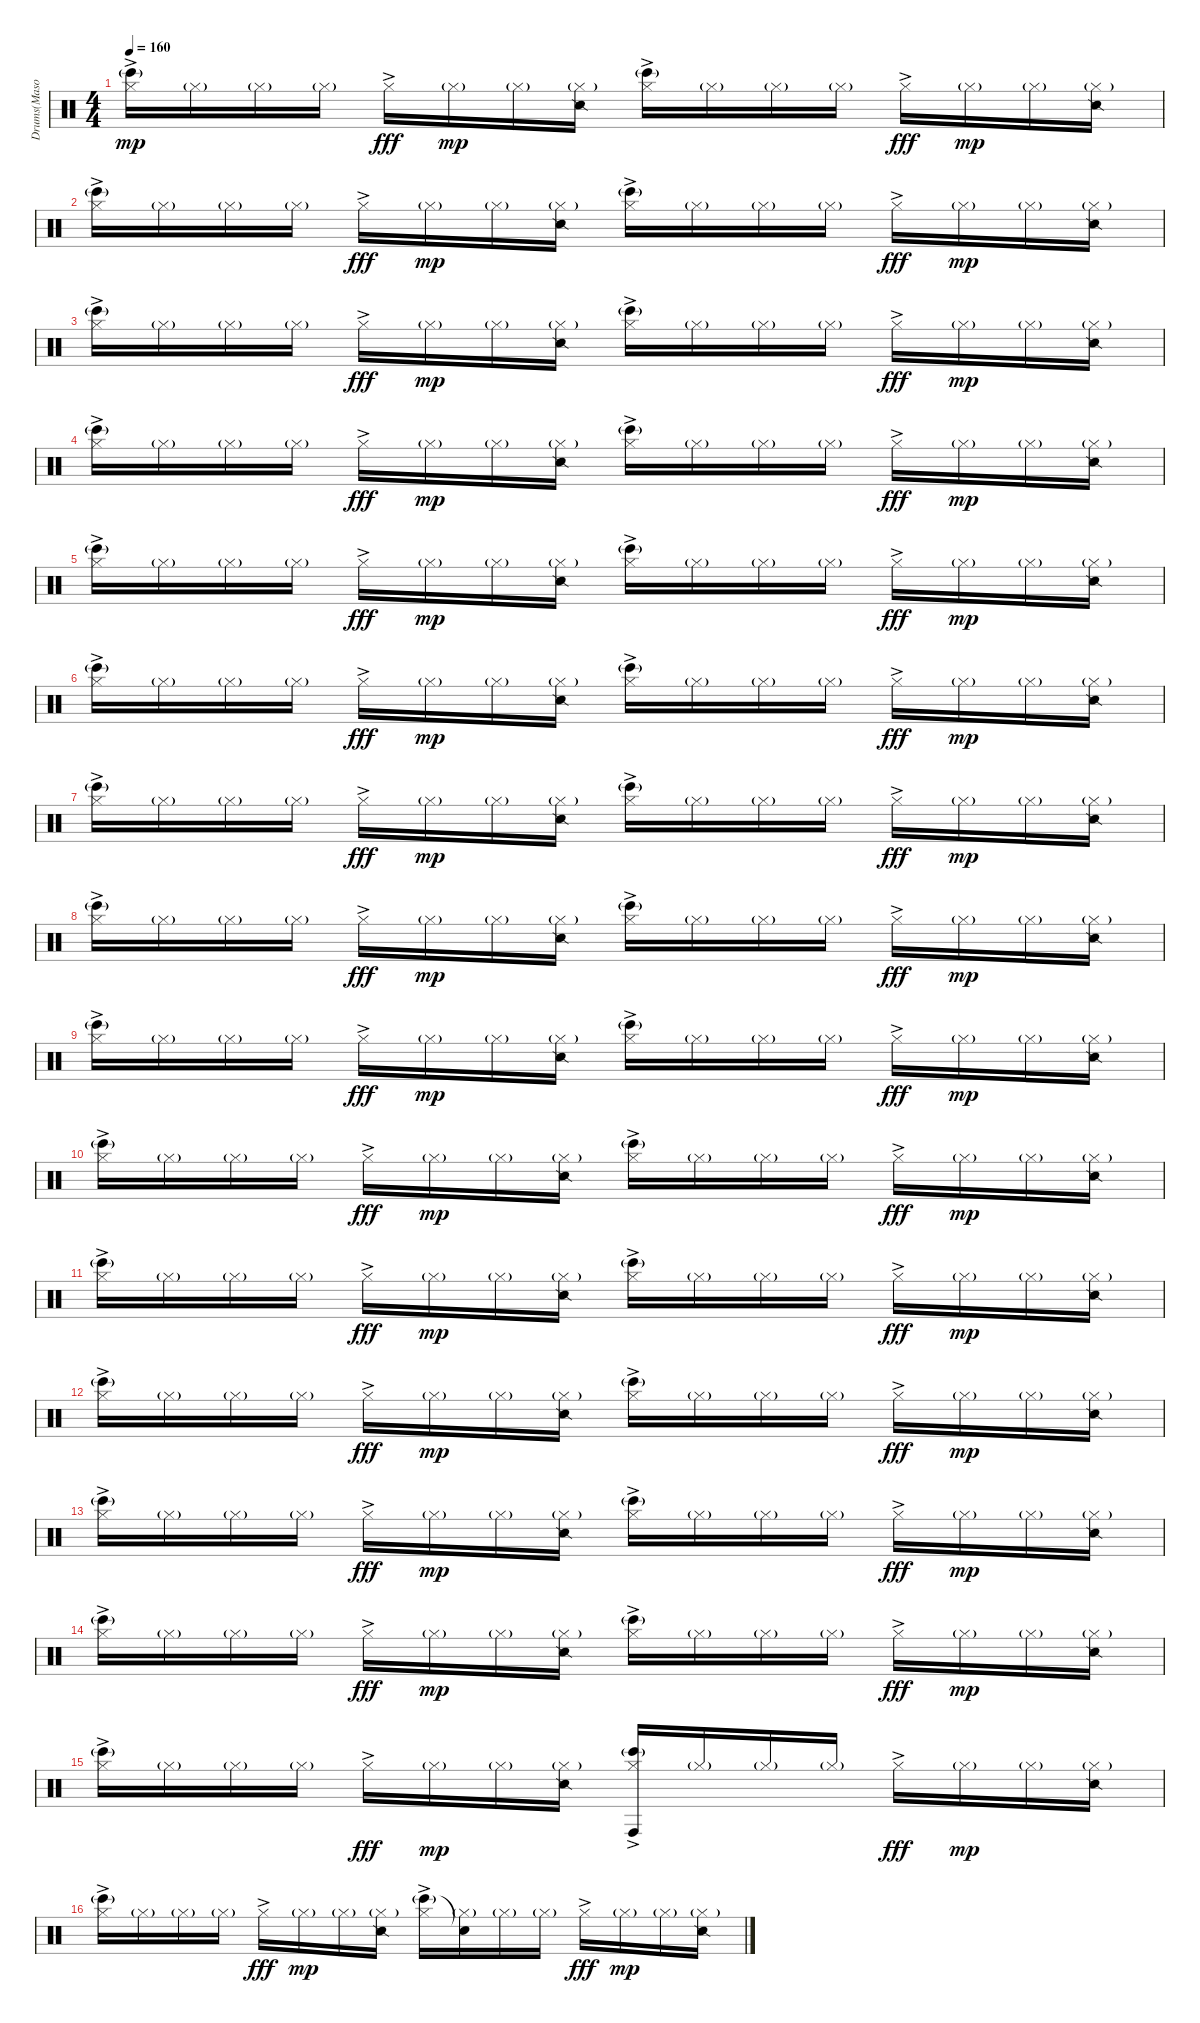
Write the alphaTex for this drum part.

\track ("Drums(Mason)" "Drums(Maso") {instrument percussion}
\staff {score}
\articulation defaults
\ts (4 4)
\tempo 160
\clef neutral
\ks c
("Hi-Hat (closed)"{ac} "Bongo High (hit)"{g}).16{dy mp} "Hi-Hat (closed)"{g}.16 "Hi-Hat (closed)"{g}.16 "Hi-Hat (closed)"{g}.16 "Hi-Hat (closed)"{ac}.16{dy fff} "Hi-Hat (closed)"{g}.16{dy mp} "Hi-Hat (closed)"{g}.16 ("Hi-Hat (closed)"{g} "Snare (side stick) 2").16 ("Hi-Hat (closed)"{ac} "Bongo High (hit)"{g}).16 "Hi-Hat (closed)"{g}.16 "Hi-Hat (closed)"{g}.16 "Hi-Hat (closed)"{g}.16 "Hi-Hat (closed)"{ac}.16{dy fff} "Hi-Hat (closed)"{g}.16{dy mp} "Hi-Hat (closed)"{g}.16 ("Hi-Hat (closed)"{g} "Snare (side stick) 2").16 |
("Hi-Hat (closed)"{ac} "Bongo High (hit)"{g}).16 "Hi-Hat (closed)"{g}.16 "Hi-Hat (closed)"{g}.16 "Hi-Hat (closed)"{g}.16 "Hi-Hat (closed)"{ac}.16{dy fff} "Hi-Hat (closed)"{g}.16{dy mp} "Hi-Hat (closed)"{g}.16 ("Hi-Hat (closed)"{g} "Snare (side stick) 2").16 ("Hi-Hat (closed)"{ac} "Bongo High (hit)"{g}).16 "Hi-Hat (closed)"{g}.16 "Hi-Hat (closed)"{g}.16 "Hi-Hat (closed)"{g}.16 "Hi-Hat (closed)"{ac}.16{dy fff} "Hi-Hat (closed)"{g}.16{dy mp} "Hi-Hat (closed)"{g}.16 ("Hi-Hat (closed)"{g} "Snare (side stick) 2").16 |
("Hi-Hat (closed)"{ac} "Bongo High (hit)"{g}).16 "Hi-Hat (closed)"{g}.16 "Hi-Hat (closed)"{g}.16 "Hi-Hat (closed)"{g}.16 "Hi-Hat (closed)"{ac}.16{dy fff} "Hi-Hat (closed)"{g}.16{dy mp} "Hi-Hat (closed)"{g}.16 ("Hi-Hat (closed)"{g} "Snare (side stick) 2").16 ("Hi-Hat (closed)"{ac} "Bongo High (hit)"{g}).16 "Hi-Hat (closed)"{g}.16 "Hi-Hat (closed)"{g}.16 "Hi-Hat (closed)"{g}.16 "Hi-Hat (closed)"{ac}.16{dy fff} "Hi-Hat (closed)"{g}.16{dy mp} "Hi-Hat (closed)"{g}.16 ("Hi-Hat (closed)"{g} "Snare (side stick) 2").16 |
("Hi-Hat (closed)"{ac} "Bongo High (hit)"{g}).16 "Hi-Hat (closed)"{g}.16 "Hi-Hat (closed)"{g}.16 "Hi-Hat (closed)"{g}.16 "Hi-Hat (closed)"{ac}.16{dy fff} "Hi-Hat (closed)"{g}.16{dy mp} "Hi-Hat (closed)"{g}.16 ("Hi-Hat (closed)"{g} "Snare (side stick) 2").16 ("Hi-Hat (closed)"{ac} "Bongo High (hit)"{g}).16 "Hi-Hat (closed)"{g}.16 "Hi-Hat (closed)"{g}.16 "Hi-Hat (closed)"{g}.16 "Hi-Hat (closed)"{ac}.16{dy fff} "Hi-Hat (closed)"{g}.16{dy mp} "Hi-Hat (closed)"{g}.16 ("Hi-Hat (closed)"{g} "Snare (side stick) 2").16 |
("Hi-Hat (closed)"{ac} "Bongo High (hit)"{g}).16 "Hi-Hat (closed)"{g}.16 "Hi-Hat (closed)"{g}.16 "Hi-Hat (closed)"{g}.16 "Hi-Hat (closed)"{ac}.16{dy fff} "Hi-Hat (closed)"{g}.16{dy mp} "Hi-Hat (closed)"{g}.16 ("Hi-Hat (closed)"{g} "Snare (side stick) 2").16 ("Hi-Hat (closed)"{ac} "Bongo High (hit)"{g}).16 "Hi-Hat (closed)"{g}.16 "Hi-Hat (closed)"{g}.16 "Hi-Hat (closed)"{g}.16 "Hi-Hat (closed)"{ac}.16{dy fff} "Hi-Hat (closed)"{g}.16{dy mp} "Hi-Hat (closed)"{g}.16 ("Hi-Hat (closed)"{g} "Snare (side stick) 2").16 |
("Hi-Hat (closed)"{ac} "Bongo High (hit)"{g}).16 "Hi-Hat (closed)"{g}.16 "Hi-Hat (closed)"{g}.16 "Hi-Hat (closed)"{g}.16 "Hi-Hat (closed)"{ac}.16{dy fff} "Hi-Hat (closed)"{g}.16{dy mp} "Hi-Hat (closed)"{g}.16 ("Hi-Hat (closed)"{g} "Snare (side stick) 2").16 ("Hi-Hat (closed)"{ac} "Bongo High (hit)"{g}).16 "Hi-Hat (closed)"{g}.16 "Hi-Hat (closed)"{g}.16 "Hi-Hat (closed)"{g}.16 "Hi-Hat (closed)"{ac}.16{dy fff} "Hi-Hat (closed)"{g}.16{dy mp} "Hi-Hat (closed)"{g}.16 ("Hi-Hat (closed)"{g} "Snare (side stick) 2").16 |
("Hi-Hat (closed)"{ac} "Bongo High (hit)"{g}).16 "Hi-Hat (closed)"{g}.16 "Hi-Hat (closed)"{g}.16 "Hi-Hat (closed)"{g}.16 "Hi-Hat (closed)"{ac}.16{dy fff} "Hi-Hat (closed)"{g}.16{dy mp} "Hi-Hat (closed)"{g}.16 ("Hi-Hat (closed)"{g} "Snare (side stick) 2").16 ("Hi-Hat (closed)"{ac} "Bongo High (hit)"{g}).16 "Hi-Hat (closed)"{g}.16 "Hi-Hat (closed)"{g}.16 "Hi-Hat (closed)"{g}.16 "Hi-Hat (closed)"{ac}.16{dy fff} "Hi-Hat (closed)"{g}.16{dy mp} "Hi-Hat (closed)"{g}.16 ("Hi-Hat (closed)"{g} "Snare (side stick) 2").16 |
("Hi-Hat (closed)"{ac} "Bongo High (hit)"{g}).16 "Hi-Hat (closed)"{g}.16 "Hi-Hat (closed)"{g}.16 "Hi-Hat (closed)"{g}.16 "Hi-Hat (closed)"{ac}.16{dy fff} "Hi-Hat (closed)"{g}.16{dy mp} "Hi-Hat (closed)"{g}.16 ("Hi-Hat (closed)"{g} "Snare (side stick) 2").16 ("Hi-Hat (closed)"{ac} "Bongo High (hit)"{g}).16 "Hi-Hat (closed)"{g}.16 "Hi-Hat (closed)"{g}.16 "Hi-Hat (closed)"{g}.16 "Hi-Hat (closed)"{ac}.16{dy fff} "Hi-Hat (closed)"{g}.16{dy mp} "Hi-Hat (closed)"{g}.16 ("Hi-Hat (closed)"{g} "Snare (side stick) 2").16 |
("Hi-Hat (closed)"{ac} "Bongo High (hit)"{g}).16 "Hi-Hat (closed)"{g}.16 "Hi-Hat (closed)"{g}.16 "Hi-Hat (closed)"{g}.16 "Hi-Hat (closed)"{ac}.16{dy fff} "Hi-Hat (closed)"{g}.16{dy mp} "Hi-Hat (closed)"{g}.16 ("Hi-Hat (closed)"{g} "Snare (side stick) 2").16 ("Hi-Hat (closed)"{ac} "Bongo High (hit)"{g}).16 "Hi-Hat (closed)"{g}.16 "Hi-Hat (closed)"{g}.16 "Hi-Hat (closed)"{g}.16 "Hi-Hat (closed)"{ac}.16{dy fff} "Hi-Hat (closed)"{g}.16{dy mp} "Hi-Hat (closed)"{g}.16 ("Hi-Hat (closed)"{g} "Snare (side stick) 2").16 |
("Hi-Hat (closed)"{ac} "Bongo High (hit)"{g}).16 "Hi-Hat (closed)"{g}.16 "Hi-Hat (closed)"{g}.16 "Hi-Hat (closed)"{g}.16 "Hi-Hat (closed)"{ac}.16{dy fff} "Hi-Hat (closed)"{g}.16{dy mp} "Hi-Hat (closed)"{g}.16 ("Hi-Hat (closed)"{g} "Snare (side stick) 2").16 ("Hi-Hat (closed)"{ac} "Bongo High (hit)"{g}).16 "Hi-Hat (closed)"{g}.16 "Hi-Hat (closed)"{g}.16 "Hi-Hat (closed)"{g}.16 "Hi-Hat (closed)"{ac}.16{dy fff} "Hi-Hat (closed)"{g}.16{dy mp} "Hi-Hat (closed)"{g}.16 ("Hi-Hat (closed)"{g} "Snare (side stick) 2").16 |
("Hi-Hat (closed)"{ac} "Bongo High (hit)"{g}).16 "Hi-Hat (closed)"{g}.16 "Hi-Hat (closed)"{g}.16 "Hi-Hat (closed)"{g}.16 "Hi-Hat (closed)"{ac}.16{dy fff} "Hi-Hat (closed)"{g}.16{dy mp} "Hi-Hat (closed)"{g}.16 ("Hi-Hat (closed)"{g} "Snare (side stick) 2").16 ("Hi-Hat (closed)"{ac} "Bongo High (hit)"{g}).16 "Hi-Hat (closed)"{g}.16 "Hi-Hat (closed)"{g}.16 "Hi-Hat (closed)"{g}.16 "Hi-Hat (closed)"{ac}.16{dy fff} "Hi-Hat (closed)"{g}.16{dy mp} "Hi-Hat (closed)"{g}.16 ("Hi-Hat (closed)"{g} "Snare (side stick) 2").16 |
("Hi-Hat (closed)"{ac} "Bongo High (hit)"{g}).16 "Hi-Hat (closed)"{g}.16 "Hi-Hat (closed)"{g}.16 "Hi-Hat (closed)"{g}.16 "Hi-Hat (closed)"{ac}.16{dy fff} "Hi-Hat (closed)"{g}.16{dy mp} "Hi-Hat (closed)"{g}.16 ("Hi-Hat (closed)"{g} "Snare (side stick) 2").16 ("Hi-Hat (closed)"{ac} "Bongo High (hit)"{g}).16 "Hi-Hat (closed)"{g}.16 "Hi-Hat (closed)"{g}.16 "Hi-Hat (closed)"{g}.16 "Hi-Hat (closed)"{ac}.16{dy fff} "Hi-Hat (closed)"{g}.16{dy mp} "Hi-Hat (closed)"{g}.16 ("Hi-Hat (closed)"{g} "Snare (side stick) 2").16 |
("Hi-Hat (closed)"{ac} "Bongo High (hit)"{g}).16 "Hi-Hat (closed)"{g}.16 "Hi-Hat (closed)"{g}.16 "Hi-Hat (closed)"{g}.16 "Hi-Hat (closed)"{ac}.16{dy fff} "Hi-Hat (closed)"{g}.16{dy mp} "Hi-Hat (closed)"{g}.16 ("Hi-Hat (closed)"{g} "Snare (side stick) 2").16 ("Hi-Hat (closed)"{ac} "Bongo High (hit)"{g}).16 "Hi-Hat (closed)"{g}.16 "Hi-Hat (closed)"{g}.16 "Hi-Hat (closed)"{g}.16 "Hi-Hat (closed)"{ac}.16{dy fff} "Hi-Hat (closed)"{g}.16{dy mp} "Hi-Hat (closed)"{g}.16 ("Hi-Hat (closed)"{g} "Snare (side stick) 2").16 |
("Hi-Hat (closed)"{ac} "Bongo High (hit)"{g}).16 "Hi-Hat (closed)"{g}.16 "Hi-Hat (closed)"{g}.16 "Hi-Hat (closed)"{g}.16 "Hi-Hat (closed)"{ac}.16{dy fff} "Hi-Hat (closed)"{g}.16{dy mp} "Hi-Hat (closed)"{g}.16 ("Hi-Hat (closed)"{g} "Snare (side stick) 2").16 ("Hi-Hat (closed)"{ac} "Bongo High (hit)"{g}).16 "Hi-Hat (closed)"{g}.16 "Hi-Hat (closed)"{g}.16 "Hi-Hat (closed)"{g}.16 "Hi-Hat (closed)"{ac}.16{dy fff} "Hi-Hat (closed)"{g}.16{dy mp} "Hi-Hat (closed)"{g}.16 ("Hi-Hat (closed)"{g} "Snare (side stick) 2").16 |
("Hi-Hat (closed)"{ac} "Bongo High (hit)"{g}).16 "Hi-Hat (closed)"{g}.16 "Hi-Hat (closed)"{g}.16 "Hi-Hat (closed)"{g}.16 "Hi-Hat (closed)"{ac}.16{dy fff} "Hi-Hat (closed)"{g}.16{dy mp} "Hi-Hat (closed)"{g}.16 ("Hi-Hat (closed)"{g} "Snare (side stick) 2").16 ("Hi-Hat (closed)"{ac} "Bongo High (hit)"{g} "Conga high (hit)").16 "Hi-Hat (closed)"{g}.16 "Hi-Hat (closed)"{g}.16 "Hi-Hat (closed)"{g}.16 "Hi-Hat (closed)"{ac}.16{dy fff} "Hi-Hat (closed)"{g}.16{dy mp} "Hi-Hat (closed)"{g}.16 ("Hi-Hat (closed)"{g} "Snare (side stick) 2").16 |
("Hi-Hat (closed)"{ac} "Bongo High (hit)"{g}).16 "Hi-Hat (closed)"{g}.16 "Hi-Hat (closed)"{g}.16 "Hi-Hat (closed)"{g}.16 "Hi-Hat (closed)"{ac}.16{dy fff} "Hi-Hat (closed)"{g}.16{dy mp} "Hi-Hat (closed)"{g}.16 ("Hi-Hat (closed)"{g} "Snare (side stick) 2").16 ("Hi-Hat (closed)"{ac} "Bongo High (hit)"{g}).16 ("Hi-Hat (closed)"{g} "Snare (hit)"{t}).16 "Hi-Hat (closed)"{g}.16 "Hi-Hat (closed)"{g}.16 "Hi-Hat (closed)"{ac}.16{dy fff} "Hi-Hat (closed)"{g}.16{dy mp} "Hi-Hat (closed)"{g}.16 ("Hi-Hat (closed)"{g} "Snare (side stick) 2").16
